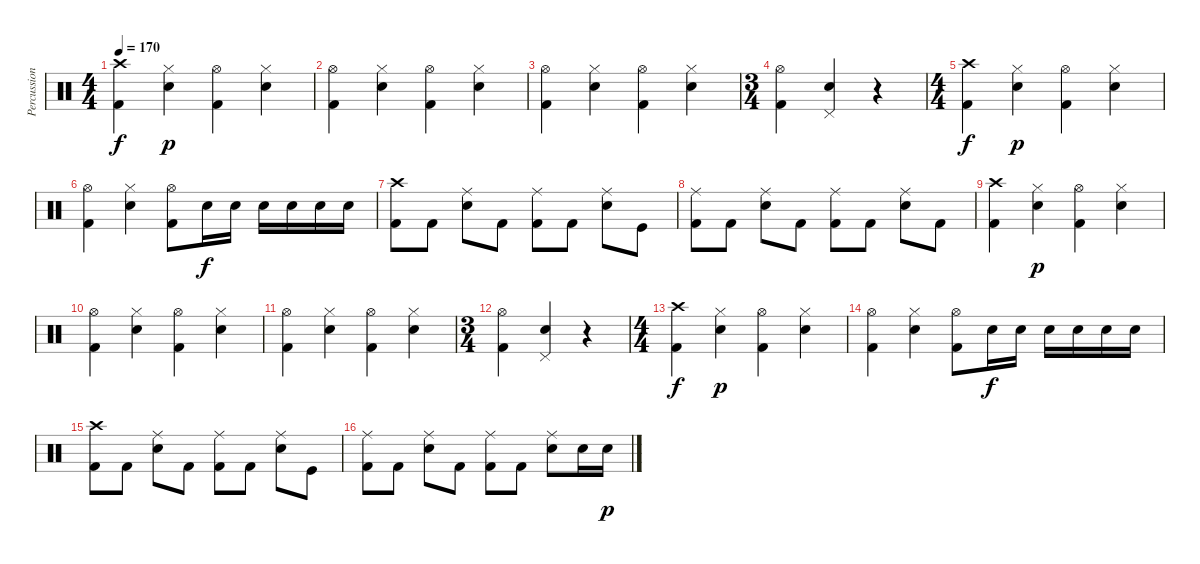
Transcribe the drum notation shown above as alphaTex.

\track ("Percussion" "Percussion") {instrument percussion}
\staff {score}
\articulation defaults
\ts (4 4)
\tempo 170
\clef neutral
\ks c
("Crash high (hit)" "Kick (hit) 2").4{dy f} ("Hi-Hat (closed)" "Electric Snare (hit)").4{dy p} ("Hi-Hat (open)" "Kick (hit) 2").4 ("Hi-Hat (closed)" "Electric Snare (hit)").4 |
("Hi-Hat (open)" "Kick (hit) 2").4 ("Hi-Hat (closed)" "Electric Snare (hit)").4 ("Hi-Hat (open)" "Kick (hit) 2").4 ("Hi-Hat (closed)" "Electric Snare (hit)").4 |
("Hi-Hat (open)" "Kick (hit) 2").4 ("Hi-Hat (closed)" "Electric Snare (hit)").4 ("Hi-Hat (open)" "Kick (hit) 2").4 ("Hi-Hat (closed)" "Electric Snare (hit)").4 |
\ts (3 4)
("Hi-Hat (open)" "Kick (hit) 2").4 ("Pedal Hi-Hat (hit)" "Electric Snare (hit)").4 r.4 |
\ts (4 4)
("Crash high (hit)" "Kick (hit) 2").4{dy f} ("Hi-Hat (closed)" "Electric Snare (hit)").4{dy p} ("Hi-Hat (open)" "Kick (hit) 2").4 ("Hi-Hat (closed)" "Electric Snare (hit)").4 |
("Hi-Hat (open)" "Kick (hit) 2").4 ("Hi-Hat (closed)" "Electric Snare (hit)").4 ("Hi-Hat (open)" "Kick (hit) 2").8 "Electric Snare (hit)".16{dy f} "Electric Snare (hit)".16 "Electric Snare (hit)".16 "Electric Snare (hit)".16 "Electric Snare (hit)".16 "Electric Snare (hit)".16 |
("Crash high (hit)" "Kick (hit) 2").8 "Kick (hit) 2".8 ("Ride (middle)" "Electric Snare (hit)").8 "Kick (hit) 2".8 ("Ride (middle)" "Kick (hit) 2").8 "Kick (hit) 2".8 ("Ride (middle)" "Electric Snare (hit)").8 "Kick (hit)".8 |
("Ride (middle)" "Kick (hit) 2").8 "Kick (hit) 2".8 ("Ride (middle)" "Electric Snare (hit)").8 "Kick (hit) 2".8 ("Ride (middle)" "Kick (hit) 2").8 "Kick (hit) 2".8 ("Ride (middle)" "Electric Snare (hit)").8 "Kick (hit) 2".8 |
("Crash high (hit)" "Kick (hit) 2").4 ("Hi-Hat (closed)" "Electric Snare (hit)").4{dy p} ("Hi-Hat (open)" "Kick (hit) 2").4 ("Hi-Hat (closed)" "Electric Snare (hit)").4 |
("Hi-Hat (open)" "Kick (hit) 2").4 ("Hi-Hat (closed)" "Electric Snare (hit)").4 ("Hi-Hat (open)" "Kick (hit) 2").4 ("Hi-Hat (closed)" "Electric Snare (hit)").4 |
("Hi-Hat (open)" "Kick (hit) 2").4 ("Hi-Hat (closed)" "Electric Snare (hit)").4 ("Hi-Hat (open)" "Kick (hit) 2").4 ("Hi-Hat (closed)" "Electric Snare (hit)").4 |
\ts (3 4)
("Hi-Hat (open)" "Kick (hit) 2").4 ("Pedal Hi-Hat (hit)" "Electric Snare (hit)").4 r.4 |
\ts (4 4)
("Crash high (hit)" "Kick (hit) 2").4{dy f} ("Hi-Hat (closed)" "Electric Snare (hit)").4{dy p} ("Hi-Hat (open)" "Kick (hit) 2").4 ("Hi-Hat (closed)" "Electric Snare (hit)").4 |
("Hi-Hat (open)" "Kick (hit) 2").4 ("Hi-Hat (closed)" "Electric Snare (hit)").4 ("Hi-Hat (open)" "Kick (hit) 2").8 "Electric Snare (hit)".16{dy f} "Electric Snare (hit)".16 "Electric Snare (hit)".16 "Electric Snare (hit)".16 "Electric Snare (hit)".16 "Electric Snare (hit)".16 |
("Crash high (hit)" "Kick (hit) 2").8 "Kick (hit) 2".8 ("Ride (middle)" "Electric Snare (hit)").8 "Kick (hit) 2".8 ("Ride (middle)" "Kick (hit) 2").8 "Kick (hit) 2".8 ("Ride (middle)" "Electric Snare (hit)").8 "Kick (hit)".8 |
("Ride (middle)" "Kick (hit) 2").8 "Kick (hit) 2".8 ("Ride (middle)" "Electric Snare (hit)").8 "Kick (hit) 2".8 ("Ride (middle)" "Kick (hit) 2").8 "Kick (hit) 2".8 ("Ride (middle)" "Electric Snare (hit)").8 "Electric Snare (hit)".16 "Electric Snare (hit)".16{dy p}
